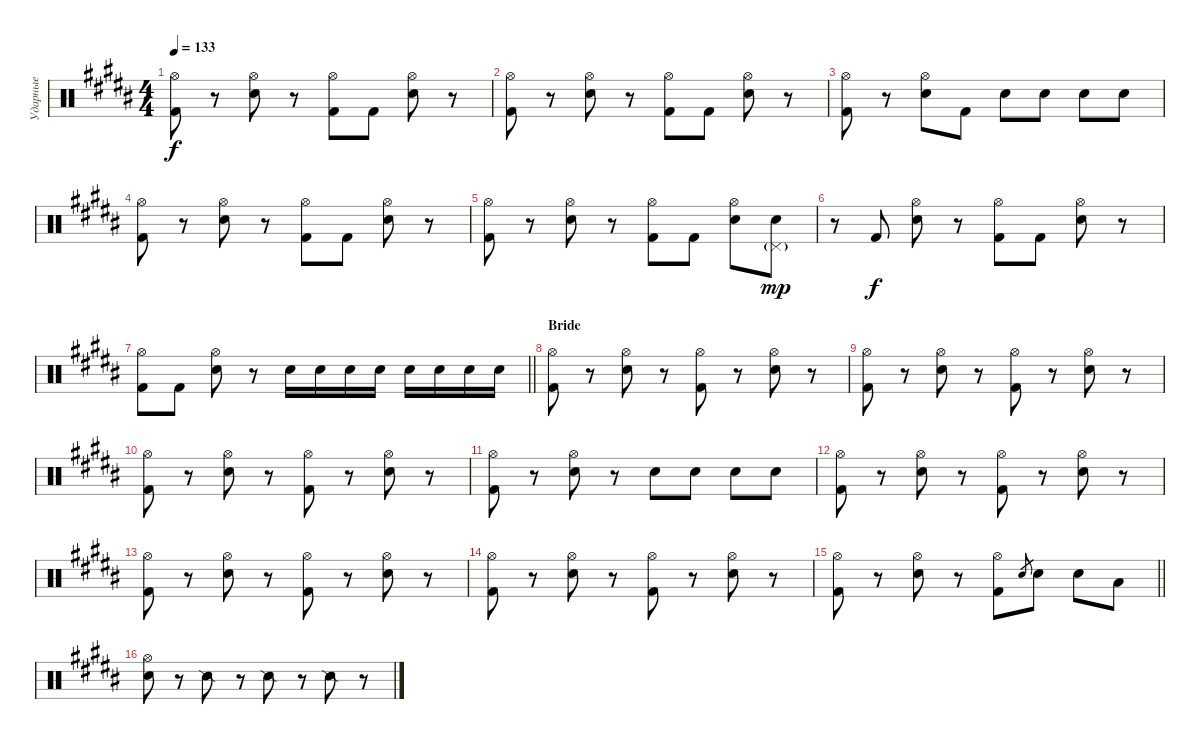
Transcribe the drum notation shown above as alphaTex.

\track ("Ударные" "Ударные") {instrument percussion}
\staff {score}
\articulation defaults
\ts (4 4)
\tempo 133
\clef neutral
\ks b
("Hi-Hat (open)" "Kick (hit) 2").8{dy f} r.8 ("Hi-Hat (open)" "Electric Snare (hit)").8 r.8 ("Hi-Hat (open)" "Kick (hit) 2").8 "Kick (hit) 2".8 ("Hi-Hat (open)" "Electric Snare (hit)").8 r.8 |
("Hi-Hat (open)" "Kick (hit) 2").8 r.8 ("Hi-Hat (open)" "Electric Snare (hit)").8 r.8 ("Hi-Hat (open)" "Kick (hit) 2").8 "Kick (hit) 2".8 ("Hi-Hat (open)" "Electric Snare (hit)").8 r.8 |
("Hi-Hat (open)" "Kick (hit) 2").8 r.8 ("Hi-Hat (open)" "Electric Snare (hit)").8 "Kick (hit) 2".8 "Electric Snare (hit)".8 "Electric Snare (hit)".8 "Electric Snare (hit)".8 "Electric Snare (hit)".8 |
("Hi-Hat (open)" "Kick (hit) 2").8 r.8 ("Hi-Hat (open)" "Electric Snare (hit)").8 r.8 ("Hi-Hat (open)" "Kick (hit) 2").8 "Kick (hit) 2".8 ("Hi-Hat (open)" "Electric Snare (hit)").8 r.8 |
("Hi-Hat (open)" "Kick (hit) 2").8 r.8 ("Hi-Hat (open)" "Electric Snare (hit)").8 r.8 ("Hi-Hat (open)" "Kick (hit) 2").8 "Kick (hit) 2".8 ("Hi-Hat (open)" "Electric Snare (hit)").8 ("Pedal Hi-Hat (hit)"{g} "Electric Snare (hit)").8{dy mp} |
r.8 "Kick (hit) 2".8{dy f} ("Hi-Hat (open)" "Electric Snare (hit)").8 r.8 ("Hi-Hat (open)" "Kick (hit) 2").8 "Kick (hit) 2".8 ("Hi-Hat (open)" "Electric Snare (hit)").8 r.8 |
\barLineRight lightlight
("Hi-Hat (open)" "Kick (hit) 2").8 "Kick (hit) 2".8 ("Hi-Hat (open)" "Electric Snare (hit)").8 r.8 "Electric Snare (hit)".16 "Electric Snare (hit)".16 "Electric Snare (hit)".16 "Electric Snare (hit)".16 "Electric Snare (hit)".16 "Electric Snare (hit)".16 "Electric Snare (hit)".16 "Electric Snare (hit)".16 |
\section ("" "Bride")
("Hi-Hat (open)" "Kick (hit) 2").8 r.8 ("Hi-Hat (open)" "Electric Snare (hit)").8 r.8 ("Hi-Hat (open)" "Kick (hit) 2").8 r.8 ("Hi-Hat (open)" "Electric Snare (hit)").8 r.8 |
("Hi-Hat (open)" "Kick (hit) 2").8 r.8 ("Hi-Hat (open)" "Electric Snare (hit)").8 r.8 ("Hi-Hat (open)" "Kick (hit) 2").8 r.8 ("Hi-Hat (open)" "Electric Snare (hit)").8 r.8 |
("Hi-Hat (open)" "Kick (hit) 2").8 r.8 ("Hi-Hat (open)" "Electric Snare (hit)").8 r.8 ("Hi-Hat (open)" "Kick (hit) 2").8 r.8 ("Hi-Hat (open)" "Electric Snare (hit)").8 r.8 |
("Hi-Hat (open)" "Kick (hit) 2").8 r.8 ("Hi-Hat (open)" "Electric Snare (hit)").8 r.8 "Electric Snare (hit)".8 "Electric Snare (hit)".8 "Electric Snare (hit)".8 "Electric Snare (hit)".8 |
("Hi-Hat (open)" "Kick (hit) 2").8 r.8 ("Hi-Hat (open)" "Electric Snare (hit)").8 r.8 ("Hi-Hat (open)" "Kick (hit) 2").8 r.8 ("Hi-Hat (open)" "Electric Snare (hit)").8 r.8 |
("Hi-Hat (open)" "Kick (hit) 2").8 r.8 ("Hi-Hat (open)" "Electric Snare (hit)").8 r.8 ("Hi-Hat (open)" "Kick (hit) 2").8 r.8 ("Hi-Hat (open)" "Electric Snare (hit)").8 r.8 |
("Hi-Hat (open)" "Kick (hit) 2").8 r.8 ("Hi-Hat (open)" "Electric Snare (hit)").8 r.8 ("Hi-Hat (open)" "Kick (hit) 2").8 r.8 ("Hi-Hat (open)" "Electric Snare (hit)").8 r.8 |
\barLineRight lightlight
("Hi-Hat (open)" "Kick (hit) 2").8 r.8 ("Hi-Hat (open)" "Electric Snare (hit)").8 r.8 ("Hi-Hat (open)" "Kick (hit) 2").8 "Electric Snare (hit)".8{gr} "Electric Snare (hit)".8 "Electric Snare (hit)".8 "Low Tom (hit)".8 |
("Hi-Hat (open)" "Electric Snare (hit)").8 r.8 "Snare (side stick) 2".8 r.8 "Snare (side stick) 2".8 r.8 "Snare (side stick) 2".8 r.8
